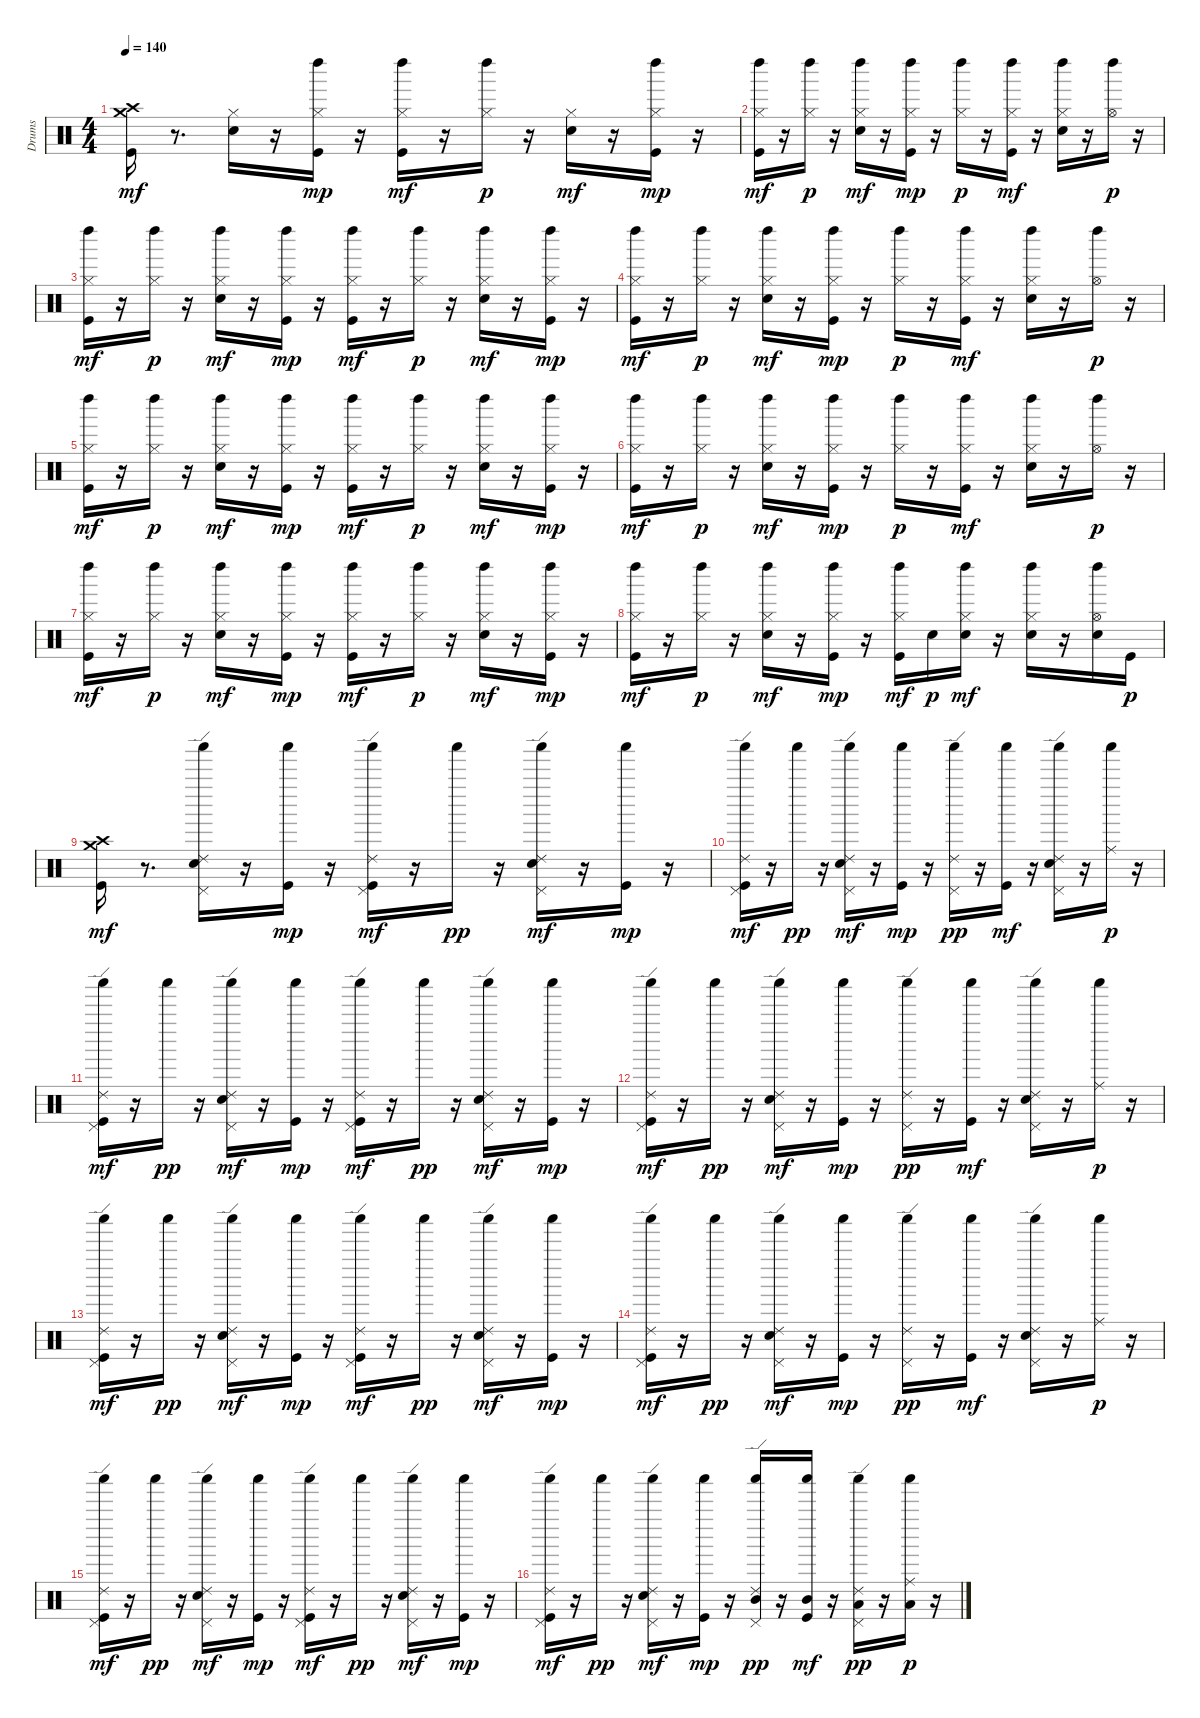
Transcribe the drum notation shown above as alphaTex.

\track ("Drums" "Drums") {instrument percussion}
\staff {score}
\articulation defaults
\ts (4 4)
\tempo 140
\clef neutral
\ks c
("Crash medium (hit)" "Crash high (hit)" "Kick (hit)").16{dy mf} r.8{d} ("Hi-Hat (closed)" "Snare (hit) 2").16 r.16 ("Hi-Hat (closed)" "Left Maraca (hit)" "Kick (hit)").16{dy mp} r.16 ("Hi-Hat (closed)" "Left Maraca (hit)" "Kick (hit)").16{dy mf} r.16 ("Hi-Hat (closed)" "Left Maraca (hit)").16{dy p} r.16 ("Hi-Hat (closed)" "Snare (hit) 2").16{dy mf} r.16 ("Hi-Hat (closed)" "Left Maraca (hit)" "Kick (hit)").16{dy mp} r.16 |
("Hi-Hat (closed)" "Left Maraca (hit)" "Kick (hit)").16{dy mf} r.16 ("Hi-Hat (closed)" "Left Maraca (hit)").16{dy p} r.16 ("Hi-Hat (closed)" "Left Maraca (hit)" "Snare (hit) 2").16{dy mf} r.16 ("Hi-Hat (closed)" "Left Maraca (hit)" "Kick (hit)").16{dy mp} r.16 ("Hi-Hat (closed)" "Left Maraca (hit)").16{dy p} r.16 ("Hi-Hat (closed)" "Left Maraca (hit)" "Kick (hit)").16{dy mf} r.16 ("Hi-Hat (closed)" "Left Maraca (hit)" "Snare (hit) 2").16 r.16 ("Hi-Hat (open)" "Left Maraca (hit)").16{dy p} r.16 |
("Hi-Hat (closed)" "Left Maraca (hit)" "Kick (hit)").16{dy mf} r.16 ("Hi-Hat (closed)" "Left Maraca (hit)").16{dy p} r.16 ("Hi-Hat (closed)" "Left Maraca (hit)" "Snare (hit) 2").16{dy mf} r.16 ("Hi-Hat (closed)" "Left Maraca (hit)" "Kick (hit)").16{dy mp} r.16 ("Hi-Hat (closed)" "Left Maraca (hit)" "Kick (hit)").16{dy mf} r.16 ("Hi-Hat (closed)" "Left Maraca (hit)").16{dy p} r.16 ("Hi-Hat (closed)" "Left Maraca (hit)" "Snare (hit) 2").16{dy mf} r.16 ("Hi-Hat (closed)" "Left Maraca (hit)" "Kick (hit)").16{dy mp} r.16 |
("Hi-Hat (closed)" "Left Maraca (hit)" "Kick (hit)").16{dy mf} r.16 ("Hi-Hat (closed)" "Left Maraca (hit)").16{dy p} r.16 ("Hi-Hat (closed)" "Left Maraca (hit)" "Snare (hit) 2").16{dy mf} r.16 ("Hi-Hat (closed)" "Left Maraca (hit)" "Kick (hit)").16{dy mp} r.16 ("Hi-Hat (closed)" "Left Maraca (hit)").16{dy p} r.16 ("Hi-Hat (closed)" "Left Maraca (hit)" "Kick (hit)").16{dy mf} r.16 ("Hi-Hat (closed)" "Left Maraca (hit)" "Snare (hit) 2").16 r.16 ("Hi-Hat (open)" "Left Maraca (hit)").16{dy p} r.16 |
("Hi-Hat (closed)" "Left Maraca (hit)" "Kick (hit)").16{dy mf} r.16 ("Hi-Hat (closed)" "Left Maraca (hit)").16{dy p} r.16 ("Hi-Hat (closed)" "Left Maraca (hit)" "Snare (hit) 2").16{dy mf} r.16 ("Hi-Hat (closed)" "Left Maraca (hit)" "Kick (hit)").16{dy mp} r.16 ("Hi-Hat (closed)" "Left Maraca (hit)" "Kick (hit)").16{dy mf} r.16 ("Hi-Hat (closed)" "Left Maraca (hit)").16{dy p} r.16 ("Hi-Hat (closed)" "Left Maraca (hit)" "Snare (hit) 2").16{dy mf} r.16 ("Hi-Hat (closed)" "Left Maraca (hit)" "Kick (hit)").16{dy mp} r.16 |
("Hi-Hat (closed)" "Left Maraca (hit)" "Kick (hit)").16{dy mf} r.16 ("Hi-Hat (closed)" "Left Maraca (hit)").16{dy p} r.16 ("Hi-Hat (closed)" "Left Maraca (hit)" "Snare (hit) 2").16{dy mf} r.16 ("Hi-Hat (closed)" "Left Maraca (hit)" "Kick (hit)").16{dy mp} r.16 ("Hi-Hat (closed)" "Left Maraca (hit)").16{dy p} r.16 ("Hi-Hat (closed)" "Left Maraca (hit)" "Kick (hit)").16{dy mf} r.16 ("Hi-Hat (closed)" "Left Maraca (hit)" "Snare (hit) 2").16 r.16 ("Hi-Hat (open)" "Left Maraca (hit)").16{dy p} r.16 |
("Hi-Hat (closed)" "Left Maraca (hit)" "Kick (hit)").16{dy mf} r.16 ("Hi-Hat (closed)" "Left Maraca (hit)").16{dy p} r.16 ("Hi-Hat (closed)" "Left Maraca (hit)" "Snare (hit) 2").16{dy mf} r.16 ("Hi-Hat (closed)" "Left Maraca (hit)" "Kick (hit)").16{dy mp} r.16 ("Hi-Hat (closed)" "Left Maraca (hit)" "Kick (hit)").16{dy mf} r.16 ("Hi-Hat (closed)" "Left Maraca (hit)").16{dy p} r.16 ("Hi-Hat (closed)" "Left Maraca (hit)" "Snare (hit) 2").16{dy mf} r.16 ("Hi-Hat (closed)" "Left Maraca (hit)" "Kick (hit)").16{dy mp} r.16 |
("Hi-Hat (closed)" "Left Maraca (hit)" "Kick (hit)").16{dy mf} r.16 ("Hi-Hat (closed)" "Left Maraca (hit)").16{dy p} r.16 ("Hi-Hat (closed)" "Left Maraca (hit)" "Snare (hit) 2").16{dy mf} r.16 ("Hi-Hat (closed)" "Left Maraca (hit)" "Kick (hit)").16{dy mp} r.16 ("Hi-Hat (closed)" "Left Maraca (hit)" "Kick (hit)").16{dy mf} "Snare (hit) 2".16{dy p} ("Hi-Hat (closed)" "Left Maraca (hit)" "Snare (hit) 2").16{dy mf} r.16 ("Hi-Hat (closed)" "Left Maraca (hit)" "Snare (hit) 2").16 r.16 ("Hi-Hat (open)" "Left Maraca (hit)" "Snare (hit) 2").16 "Kick (hit)".16{dy p} |
("Crash medium (hit)" "Crash high (hit)" "Kick (hit)").16{dy mf} r.8{d} ("Pedal Hi-Hat (hit)" "Ride (edge) 2" "Shaker (hit)" "Snare (hit) 2").16 r.16 ("Shaker (hit)" "Kick (hit)").16{dy mp} r.16 ("Pedal Hi-Hat (hit)" "Ride (edge) 2" "Shaker (hit)" "Kick (hit)").16{dy mf} r.16 "Shaker (hit)".16{dy pp} r.16 ("Pedal Hi-Hat (hit)" "Ride (edge) 2" "Shaker (hit)" "Snare (hit) 2").16{dy mf} r.16 ("Shaker (hit)" "Kick (hit)").16{dy mp} r.16 |
("Pedal Hi-Hat (hit)" "Ride (edge) 2" "Shaker (hit)" "Kick (hit)").16{dy mf} r.16 "Shaker (hit)".16{dy pp} r.16 ("Pedal Hi-Hat (hit)" "Ride (edge) 2" "Shaker (hit)" "Snare (hit) 2").16{dy mf} r.16 ("Shaker (hit)" "Kick (hit)").16{dy mp} r.16 ("Pedal Hi-Hat (hit)" "Ride (edge) 2" "Shaker (hit)").16{dy pp} r.16 ("Shaker (hit)" "Kick (hit)").16{dy mf} r.16 ("Pedal Hi-Hat (hit)" "Ride (edge) 2" "Shaker (hit)" "Snare (hit) 2").16 r.16 ("Shaker (hit)" "Ride (middle)").16{dy p} r.16 |
("Pedal Hi-Hat (hit)" "Ride (edge) 2" "Shaker (hit)" "Kick (hit)").16{dy mf} r.16 "Shaker (hit)".16{dy pp} r.16 ("Pedal Hi-Hat (hit)" "Ride (edge) 2" "Shaker (hit)" "Snare (hit) 2").16{dy mf} r.16 ("Shaker (hit)" "Kick (hit)").16{dy mp} r.16 ("Pedal Hi-Hat (hit)" "Ride (edge) 2" "Shaker (hit)" "Kick (hit)").16{dy mf} r.16 "Shaker (hit)".16{dy pp} r.16 ("Pedal Hi-Hat (hit)" "Ride (edge) 2" "Shaker (hit)" "Snare (hit) 2").16{dy mf} r.16 ("Shaker (hit)" "Kick (hit)").16{dy mp} r.16 |
("Pedal Hi-Hat (hit)" "Ride (edge) 2" "Shaker (hit)" "Kick (hit)").16{dy mf} r.16 "Shaker (hit)".16{dy pp} r.16 ("Pedal Hi-Hat (hit)" "Ride (edge) 2" "Shaker (hit)" "Snare (hit) 2").16{dy mf} r.16 ("Shaker (hit)" "Kick (hit)").16{dy mp} r.16 ("Pedal Hi-Hat (hit)" "Ride (edge) 2" "Shaker (hit)").16{dy pp} r.16 ("Shaker (hit)" "Kick (hit)").16{dy mf} r.16 ("Pedal Hi-Hat (hit)" "Ride (edge) 2" "Shaker (hit)" "Snare (hit) 2").16 r.16 ("Shaker (hit)" "Ride (middle)").16{dy p} r.16 |
("Pedal Hi-Hat (hit)" "Ride (edge) 2" "Shaker (hit)" "Kick (hit)").16{dy mf} r.16 "Shaker (hit)".16{dy pp} r.16 ("Pedal Hi-Hat (hit)" "Ride (edge) 2" "Shaker (hit)" "Snare (hit) 2").16{dy mf} r.16 ("Shaker (hit)" "Kick (hit)").16{dy mp} r.16 ("Pedal Hi-Hat (hit)" "Ride (edge) 2" "Shaker (hit)" "Kick (hit)").16{dy mf} r.16 "Shaker (hit)".16{dy pp} r.16 ("Pedal Hi-Hat (hit)" "Ride (edge) 2" "Shaker (hit)" "Snare (hit) 2").16{dy mf} r.16 ("Shaker (hit)" "Kick (hit)").16{dy mp} r.16 |
("Pedal Hi-Hat (hit)" "Ride (edge) 2" "Shaker (hit)" "Kick (hit)").16{dy mf} r.16 "Shaker (hit)".16{dy pp} r.16 ("Pedal Hi-Hat (hit)" "Ride (edge) 2" "Shaker (hit)" "Snare (hit) 2").16{dy mf} r.16 ("Shaker (hit)" "Kick (hit)").16{dy mp} r.16 ("Pedal Hi-Hat (hit)" "Ride (edge) 2" "Shaker (hit)").16{dy pp} r.16 ("Shaker (hit)" "Kick (hit)").16{dy mf} r.16 ("Pedal Hi-Hat (hit)" "Ride (edge) 2" "Shaker (hit)" "Snare (hit) 2").16 r.16 ("Shaker (hit)" "Ride (middle)").16{dy p} r.16 |
("Pedal Hi-Hat (hit)" "Ride (edge) 2" "Shaker (hit)" "Kick (hit)").16{dy mf} r.16 "Shaker (hit)".16{dy pp} r.16 ("Pedal Hi-Hat (hit)" "Ride (edge) 2" "Shaker (hit)" "Snare (hit) 2").16{dy mf} r.16 ("Shaker (hit)" "Kick (hit)").16{dy mp} r.16 ("Pedal Hi-Hat (hit)" "Ride (edge) 2" "Shaker (hit)" "Kick (hit)").16{dy mf} r.16 "Shaker (hit)".16{dy pp} r.16 ("Pedal Hi-Hat (hit)" "Ride (edge) 2" "Shaker (hit)" "Snare (hit) 2").16{dy mf} r.16 ("Shaker (hit)" "Kick (hit)").16{dy mp} r.16 |
("Pedal Hi-Hat (hit)" "Ride (edge) 2" "Shaker (hit)" "Kick (hit)").16{dy mf} r.16 "Shaker (hit)".16{dy pp} r.16 ("Pedal Hi-Hat (hit)" "Ride (edge) 2" "Shaker (hit)" "Snare (hit) 2").16{dy mf} r.16 ("Shaker (hit)" "Kick (hit)").16{dy mp} r.16 ("Pedal Hi-Hat (hit)" "Mid Tom (hit)" "Ride (edge) 2" "Shaker (hit)").16{dy pp} r.16 ("Mid Tom (hit)" "Shaker (hit)" "Kick (hit)").16{dy mf} r.16 ("Pedal Hi-Hat (hit)" "Low Tom (hit)" "Ride (edge) 2" "Shaker (hit)").16{dy pp} r.16 ("Low Floor Tom (hit)" "Shaker (hit)" "Ride (middle)").16{dy p} r.16
